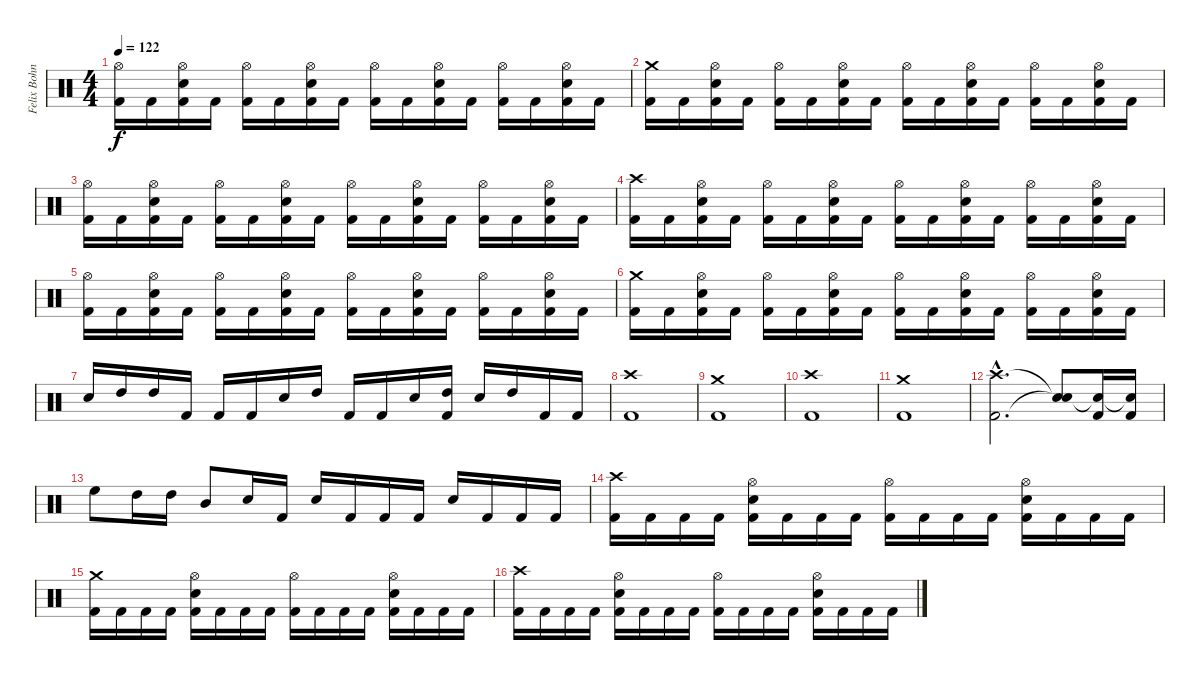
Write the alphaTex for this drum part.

\track ("Felix Bohnke" "Felix Bohn") {instrument percussion}
\staff {score}
\articulation defaults
\ts (4 4)
\tempo 122
\clef neutral
\ks c
("Hi-Hat (open)" "Kick (hit) 2").16{dy f} "Kick (hit) 2".16 ("Hi-Hat (open)" "Snare (hit) 2" "Kick (hit) 2").16 "Kick (hit) 2".16 ("Hi-Hat (open)" "Kick (hit) 2").16 "Kick (hit) 2".16 ("Hi-Hat (open)" "Snare (hit) 2" "Kick (hit) 2").16 "Kick (hit) 2".16 ("Hi-Hat (open)" "Kick (hit) 2").16 "Kick (hit) 2".16 ("Hi-Hat (open)" "Snare (hit) 2" "Kick (hit) 2").16 "Kick (hit) 2".16 ("Hi-Hat (open)" "Kick (hit) 2").16 "Kick (hit) 2".16 ("Hi-Hat (open)" "Snare (hit) 2" "Kick (hit) 2").16 "Kick (hit) 2".16 |
("Crash medium (hit)" "Kick (hit) 2").16 "Kick (hit) 2".16 ("Hi-Hat (open)" "Snare (hit) 2" "Kick (hit) 2").16 "Kick (hit) 2".16 ("Hi-Hat (open)" "Kick (hit) 2").16 "Kick (hit) 2".16 ("Hi-Hat (open)" "Snare (hit) 2" "Kick (hit) 2").16 "Kick (hit) 2".16 ("Hi-Hat (open)" "Kick (hit) 2").16 "Kick (hit) 2".16 ("Hi-Hat (open)" "Snare (hit) 2" "Kick (hit) 2").16 "Kick (hit) 2".16 ("Hi-Hat (open)" "Kick (hit) 2").16 "Kick (hit) 2".16 ("Hi-Hat (open)" "Snare (hit) 2" "Kick (hit) 2").16 "Kick (hit) 2".16 |
("Hi-Hat (open)" "Kick (hit) 2").16 "Kick (hit) 2".16 ("Hi-Hat (open)" "Snare (hit) 2" "Kick (hit) 2").16 "Kick (hit) 2".16 ("Hi-Hat (open)" "Kick (hit) 2").16 "Kick (hit) 2".16 ("Hi-Hat (open)" "Snare (hit) 2" "Kick (hit) 2").16 "Kick (hit) 2".16 ("Hi-Hat (open)" "Kick (hit) 2").16 "Kick (hit) 2".16 ("Hi-Hat (open)" "Snare (hit) 2" "Kick (hit) 2").16 "Kick (hit) 2".16 ("Hi-Hat (open)" "Kick (hit) 2").16 "Kick (hit) 2".16 ("Hi-Hat (open)" "Snare (hit) 2" "Kick (hit) 2").16 "Kick (hit) 2".16 |
("Crash high (hit)" "Kick (hit) 2").16 "Kick (hit) 2".16 ("Hi-Hat (open)" "Snare (hit) 2" "Kick (hit) 2").16 "Kick (hit) 2".16 ("Hi-Hat (open)" "Kick (hit) 2").16 "Kick (hit) 2".16 ("Hi-Hat (open)" "Snare (hit) 2" "Kick (hit) 2").16 "Kick (hit) 2".16 ("Hi-Hat (open)" "Kick (hit) 2").16 "Kick (hit) 2".16 ("Hi-Hat (open)" "Snare (hit) 2" "Kick (hit) 2").16 "Kick (hit) 2".16 ("Hi-Hat (open)" "Kick (hit) 2").16 "Kick (hit) 2".16 ("Hi-Hat (open)" "Snare (hit) 2" "Kick (hit) 2").16 "Kick (hit) 2".16 |
("Hi-Hat (open)" "Kick (hit) 2").16 "Kick (hit) 2".16 ("Hi-Hat (open)" "Snare (hit) 2" "Kick (hit) 2").16 "Kick (hit) 2".16 ("Hi-Hat (open)" "Kick (hit) 2").16 "Kick (hit) 2".16 ("Hi-Hat (open)" "Snare (hit) 2" "Kick (hit) 2").16 "Kick (hit) 2".16 ("Hi-Hat (open)" "Kick (hit) 2").16 "Kick (hit) 2".16 ("Hi-Hat (open)" "Snare (hit) 2" "Kick (hit) 2").16 "Kick (hit) 2".16 ("Hi-Hat (open)" "Kick (hit) 2").16 "Kick (hit) 2".16 ("Hi-Hat (open)" "Snare (hit) 2" "Kick (hit) 2").16 "Kick (hit) 2".16 |
("Crash medium (hit)" "Kick (hit) 2").16 "Kick (hit) 2".16 ("Hi-Hat (open)" "Snare (hit) 2" "Kick (hit) 2").16 "Kick (hit) 2".16 ("Hi-Hat (open)" "Kick (hit) 2").16 "Kick (hit) 2".16 ("Hi-Hat (open)" "Snare (hit) 2" "Kick (hit) 2").16 "Kick (hit) 2".16 ("Hi-Hat (open)" "Kick (hit) 2").16 "Kick (hit) 2".16 ("Hi-Hat (open)" "Snare (hit) 2" "Kick (hit) 2").16 "Kick (hit) 2".16 ("Hi-Hat (open)" "Kick (hit) 2").16 "Kick (hit) 2".16 ("Hi-Hat (open)" "Snare (hit) 2" "Kick (hit) 2").16 "Kick (hit) 2".16 |
"Snare (hit) 2".16 "High Tom (hit)".16 "High Tom (hit)".16 "Kick (hit) 2".16 "Kick (hit) 2".16 "Kick (hit) 2".16 "Snare (hit) 2".16 "High Tom (hit)".16 "Kick (hit) 2".16 "Kick (hit) 2".16 "Snare (hit) 2".16 ("High Tom (hit)" "Kick (hit) 2").16 "Snare (hit) 2".16 "High Tom (hit)".16 "Kick (hit) 2".16 "Kick (hit) 2".16 |
("Crash high (hit)" "Kick (hit) 2").1 |
("Crash medium (hit)" "Kick (hit) 2").1 |
("Crash high (hit)" "Kick (hit) 2").1 |
("Crash medium (hit)" "Kick (hit) 2").1 |
("Crash high (hit)"{hac} "Kick (hit) 2"{hac}).2{d} ("Snare (hit)"{t} "Snare (hit)"{t}).8 ("Snare (hit)"{t} "Kick (hit) 2").16 ("Snare (hit)"{t} "Kick (hit) 2").16 |
"High Floor Tom (hit)".8 "High Tom (hit)".16 "High Tom (hit)".16 "Mid Tom (hit)".8 "Snare (hit) 2".16 "Kick (hit) 2".16 "Snare (hit) 2".16 "Kick (hit) 2".16 "Kick (hit) 2".16 "Kick (hit) 2".16 "Snare (hit) 2".16 "Kick (hit) 2".16 "Kick (hit) 2".16 "Kick (hit) 2".16 |
("Crash high (hit)" "Kick (hit) 2").16 "Kick (hit) 2".16 "Kick (hit) 2".16 "Kick (hit) 2".16 ("Hi-Hat (open)" "Snare (hit) 2" "Kick (hit) 2").16 "Kick (hit) 2".16 "Kick (hit) 2".16 "Kick (hit) 2".16 ("Hi-Hat (open)" "Kick (hit) 2").16 "Kick (hit) 2".16 "Kick (hit) 2".16 "Kick (hit) 2".16 ("Hi-Hat (open)" "Snare (hit) 2" "Kick (hit) 2").16 "Kick (hit) 2".16 "Kick (hit) 2".16 "Kick (hit) 2".16 |
("Crash medium (hit)" "Kick (hit) 2").16 "Kick (hit) 2".16 "Kick (hit) 2".16 "Kick (hit) 2".16 ("Hi-Hat (open)" "Snare (hit) 2" "Kick (hit) 2").16 "Kick (hit) 2".16 "Kick (hit) 2".16 "Kick (hit) 2".16 ("Hi-Hat (open)" "Kick (hit) 2").16 "Kick (hit) 2".16 "Kick (hit) 2".16 "Kick (hit) 2".16 ("Hi-Hat (open)" "Snare (hit) 2" "Kick (hit) 2").16 "Kick (hit) 2".16 "Kick (hit) 2".16 "Kick (hit) 2".16 |
("Crash high (hit)" "Kick (hit) 2").16 "Kick (hit) 2".16 "Kick (hit) 2".16 "Kick (hit) 2".16 ("Hi-Hat (open)" "Snare (hit) 2" "Kick (hit) 2").16 "Kick (hit) 2".16 "Kick (hit) 2".16 "Kick (hit) 2".16 ("Hi-Hat (open)" "Kick (hit) 2").16 "Kick (hit) 2".16 "Kick (hit) 2".16 "Kick (hit) 2".16 ("Hi-Hat (open)" "Snare (hit) 2" "Kick (hit) 2").16 "Kick (hit) 2".16 "Kick (hit) 2".16 "Kick (hit) 2".16
